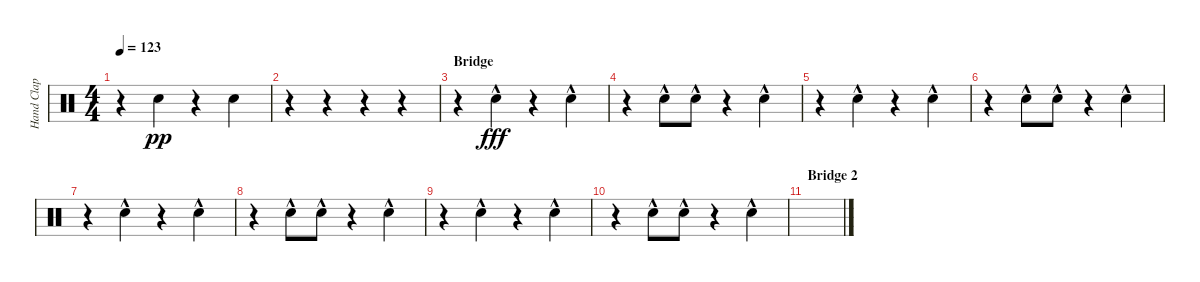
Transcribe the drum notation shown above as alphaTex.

\track ("Hand Clap" "Hand Clap") {instrument percussion}
\staff {score}
\articulation defaults
\ts (4 4)
\tempo 123
\clef neutral
\ks c
r.4{dy pp} "Hand Clap (hit)".4 r.4 "Hand Clap (hit)".4 |
r.4 r.4 r.4 r.4 |
\section ("" "Bridge")
r.4 "Hand Clap (hit)"{hac}.4{dy fff} r.4 "Hand Clap (hit)"{hac}.4 |
r.4 "Hand Clap (hit)"{hac}.8 "Hand Clap (hit)"{hac}.8 r.4 "Hand Clap (hit)"{hac}.4 |
r.4 "Hand Clap (hit)"{hac}.4 r.4 "Hand Clap (hit)"{hac}.4 |
r.4 "Hand Clap (hit)"{hac}.8 "Hand Clap (hit)"{hac}.8 r.4 "Hand Clap (hit)"{hac}.4 |
r.4 "Hand Clap (hit)"{hac}.4 r.4 "Hand Clap (hit)"{hac}.4 |
r.4 "Hand Clap (hit)"{hac}.8 "Hand Clap (hit)"{hac}.8 r.4 "Hand Clap (hit)"{hac}.4 |
r.4 "Hand Clap (hit)"{hac}.4 r.4 "Hand Clap (hit)"{hac}.4 |
r.4 "Hand Clap (hit)"{hac}.8 "Hand Clap (hit)"{hac}.8 r.4 "Hand Clap (hit)"{hac}.4 |
\section ("" "Bridge 2")
